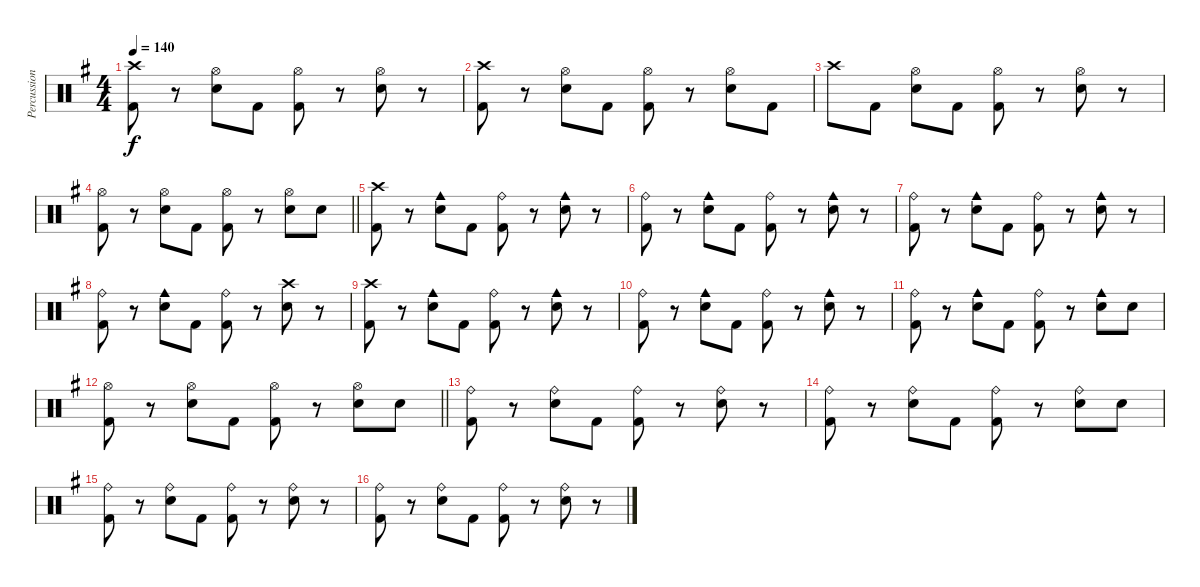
\track ("Percussion" "Percussion") {instrument percussion}
\staff {score}
\articulation defaults
\ts (4 4)
\tempo 140
\clef neutral
\ks g
("Crash high (hit)" "Kick (hit) 2").8{dy f} r.8 ("Hi-Hat (open)" "Snare (hit) 2").8 "Kick (hit) 2".8 ("Hi-Hat (open)" "Kick (hit) 2").8 r.8 ("Hi-Hat (open)" "Snare (hit) 2").8 r.8 |
("Crash high (hit)" "Kick (hit) 2").8 r.8 ("Hi-Hat (open)" "Snare (hit) 2").8 "Kick (hit) 2".8 ("Hi-Hat (open)" "Kick (hit) 2").8 r.8 ("Hi-Hat (open)" "Snare (hit) 2").8 "Kick (hit) 2".8 |
"Crash high (hit)".8 "Kick (hit) 2".8 ("Hi-Hat (open)" "Snare (hit) 2").8 "Kick (hit) 2".8 ("Hi-Hat (open)" "Kick (hit) 2").8 r.8 ("Hi-Hat (open)" "Snare (hit) 2").8 r.8 |
\barLineRight lightlight
("Hi-Hat (open)" "Kick (hit) 2").8 r.8 ("Hi-Hat (open)" "Snare (hit) 2").8 "Kick (hit) 2".8 ("Hi-Hat (open)" "Kick (hit) 2").8 r.8 ("Hi-Hat (open)" "Snare (hit) 2").8 "Snare (hit) 2".8 |
("Crash high (hit)" "Kick (hit) 2").8 r.8 ("Cowbell medium (hit)" "Snare (hit) 2").8 "Kick (hit) 2".8 ("Ride (bell)" "Kick (hit) 2").8 r.8 ("Cowbell medium (hit)" "Snare (hit) 2").8 r.8 |
("Ride (bell)" "Kick (hit) 2").8 r.8 ("Cowbell medium (hit)" "Snare (hit) 2").8 "Kick (hit) 2".8 ("Ride (bell)" "Kick (hit) 2").8 r.8 ("Cowbell medium (hit)" "Snare (hit) 2").8 r.8 |
("Ride (bell)" "Kick (hit) 2").8 r.8 ("Cowbell medium (hit)" "Snare (hit) 2").8 "Kick (hit) 2".8 ("Ride (bell)" "Kick (hit) 2").8 r.8 ("Cowbell medium (hit)" "Snare (hit) 2").8 r.8 |
("Ride (bell)" "Kick (hit) 2").8 r.8 ("Cowbell medium (hit)" "Snare (hit) 2").8 "Kick (hit) 2".8 ("Ride (bell)" "Kick (hit) 2").8 r.8 ("Crash high (hit)" "Snare (hit) 2").8 r.8 |
("Crash high (hit)" "Kick (hit) 2").8 r.8 ("Cowbell medium (hit)" "Snare (hit) 2").8 "Kick (hit) 2".8 ("Ride (bell)" "Kick (hit) 2").8 r.8 ("Cowbell medium (hit)" "Snare (hit) 2").8 r.8 |
("Ride (bell)" "Kick (hit) 2").8 r.8 ("Cowbell medium (hit)" "Snare (hit) 2").8 "Kick (hit) 2".8 ("Ride (bell)" "Kick (hit) 2").8 r.8 ("Cowbell medium (hit)" "Snare (hit) 2").8 r.8 |
("Ride (bell)" "Kick (hit) 2").8 r.8 ("Cowbell medium (hit)" "Snare (hit) 2").8 "Kick (hit) 2".8 ("Ride (bell)" "Kick (hit) 2").8 r.8 ("Cowbell medium (hit)" "Snare (hit) 2").8 "Snare (hit) 2".8 |
\barLineRight lightlight
("Hi-Hat (open)" "Kick (hit) 2").8 r.8 ("Hi-Hat (open)" "Snare (hit) 2").8 "Kick (hit) 2".8 ("Hi-Hat (open)" "Kick (hit) 2").8 r.8 ("Hi-Hat (open)" "Snare (hit) 2").8 "Snare (hit) 2".8 |
("Ride (bell)" "Kick (hit) 2").8 r.8 ("Ride (bell)" "Snare (hit) 2").8 "Kick (hit) 2".8 ("Ride (bell)" "Kick (hit) 2").8 r.8 ("Ride (bell)" "Snare (hit) 2").8 r.8 |
("Ride (bell)" "Kick (hit) 2").8 r.8 ("Ride (bell)" "Snare (hit) 2").8 "Kick (hit) 2".8 ("Ride (bell)" "Kick (hit) 2").8 r.8 ("Ride (bell)" "Snare (hit) 2").8 "Snare (hit) 2".8 |
("Ride (bell)" "Kick (hit) 2").8 r.8 ("Ride (bell)" "Snare (hit) 2").8 "Kick (hit) 2".8 ("Ride (bell)" "Kick (hit) 2").8 r.8 ("Ride (bell)" "Snare (hit) 2").8 r.8 |
("Ride (bell)" "Kick (hit) 2").8 r.8 ("Ride (bell)" "Snare (hit) 2").8 "Kick (hit) 2".8 ("Ride (bell)" "Kick (hit) 2").8 r.8 ("Ride (bell)" "Snare (hit) 2").8 r.8
